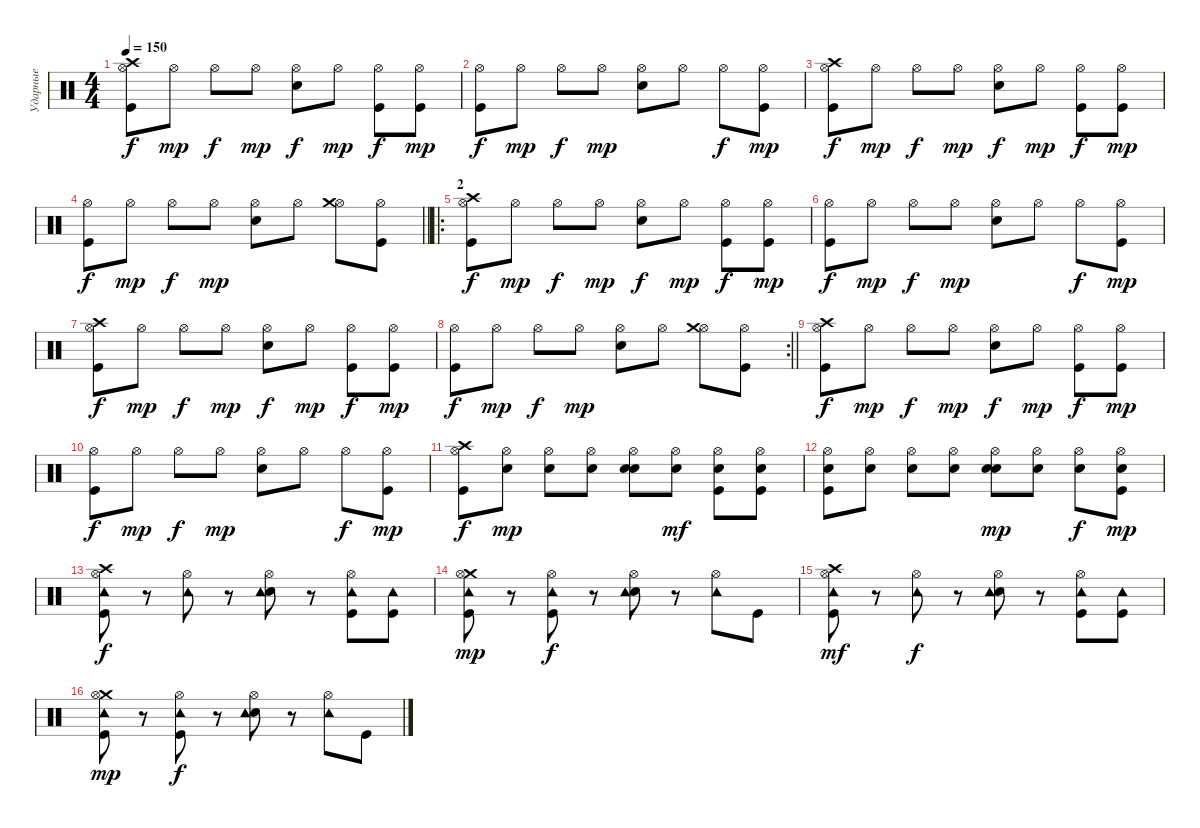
\track ("Ударные" "Ударные") {instrument percussion}
\staff {score}
\articulation defaults
\ts (4 4)
\tempo 150
\clef neutral
\ks c
("Crash high (hit)" "Hi-Hat (open)" "Kick (hit)").8{dy f} "Hi-Hat (open)".8{dy mp} "Hi-Hat (open)".8{dy f} "Hi-Hat (open)".8{dy mp} ("Snare (hit) 2" "Hi-Hat (open)").8{dy f} "Hi-Hat (open)".8{dy mp} ("Hi-Hat (open)" "Kick (hit)").8{dy f} ("Hi-Hat (open)" "Kick (hit)").8{dy mp} |
("Hi-Hat (open)" "Kick (hit)").8{dy f} "Hi-Hat (open)".8{dy mp} "Hi-Hat (open)".8{dy f} "Hi-Hat (open)".8{dy mp} ("Snare (hit) 2" "Hi-Hat (open)").8 "Hi-Hat (open)".8 "Hi-Hat (open)".8{dy f} ("Hi-Hat (open)" "Kick (hit)").8{dy mp} |
("Crash high (hit)" "Hi-Hat (open)" "Kick (hit)").8{dy f} "Hi-Hat (open)".8{dy mp} "Hi-Hat (open)".8{dy f} "Hi-Hat (open)".8{dy mp} ("Snare (hit) 2" "Hi-Hat (open)").8{dy f} "Hi-Hat (open)".8{dy mp} ("Hi-Hat (open)" "Kick (hit)").8{dy f} ("Hi-Hat (open)" "Kick (hit)").8{dy mp} |
\barLineRight lightlight
("Hi-Hat (open)" "Kick (hit)").8{dy f} "Hi-Hat (open)".8{dy mp} "Hi-Hat (open)".8{dy f} "Hi-Hat (open)".8{dy mp} ("Snare (hit) 2" "Hi-Hat (open)").8 "Hi-Hat (open)".8 ("Hi-Hat (open)" "Crash medium (hit)").8 ("Hi-Hat (open)" "Kick (hit)").8 |
\ro
\section ("" "2")
("Crash high (hit)" "Hi-Hat (open)" "Kick (hit)").8{dy f} "Hi-Hat (open)".8{dy mp} "Hi-Hat (open)".8{dy f} "Hi-Hat (open)".8{dy mp} ("Snare (hit) 2" "Hi-Hat (open)").8{dy f} "Hi-Hat (open)".8{dy mp} ("Hi-Hat (open)" "Kick (hit)").8{dy f} ("Hi-Hat (open)" "Kick (hit)").8{dy mp} |
("Hi-Hat (open)" "Kick (hit)").8{dy f} "Hi-Hat (open)".8{dy mp} "Hi-Hat (open)".8{dy f} "Hi-Hat (open)".8{dy mp} ("Snare (hit) 2" "Hi-Hat (open)").8 "Hi-Hat (open)".8 "Hi-Hat (open)".8{dy f} ("Hi-Hat (open)" "Kick (hit)").8{dy mp} |
("Crash high (hit)" "Hi-Hat (open)" "Kick (hit)").8{dy f} "Hi-Hat (open)".8{dy mp} "Hi-Hat (open)".8{dy f} "Hi-Hat (open)".8{dy mp} ("Snare (hit) 2" "Hi-Hat (open)").8{dy f} "Hi-Hat (open)".8{dy mp} ("Hi-Hat (open)" "Kick (hit)").8{dy f} ("Hi-Hat (open)" "Kick (hit)").8{dy mp} |
\rc 2
\barLineRight lightlight
("Hi-Hat (open)" "Kick (hit)").8{dy f} "Hi-Hat (open)".8{dy mp} "Hi-Hat (open)".8{dy f} "Hi-Hat (open)".8{dy mp} ("Snare (hit) 2" "Hi-Hat (open)").8 "Hi-Hat (open)".8 ("Hi-Hat (open)" "Crash medium (hit)").8 ("Hi-Hat (open)" "Kick (hit)").8 |
\section ("" "")
("Crash high (hit)" "Hi-Hat (open)" "Kick (hit)").8{dy f} "Hi-Hat (open)".8{dy mp} "Hi-Hat (open)".8{dy f} "Hi-Hat (open)".8{dy mp} ("Snare (hit) 2" "Hi-Hat (open)").8{dy f} "Hi-Hat (open)".8{dy mp} ("Hi-Hat (open)" "Kick (hit)").8{dy f} ("Hi-Hat (open)" "Kick (hit)").8{dy mp} |
("Hi-Hat (open)" "Kick (hit)").8{dy f} "Hi-Hat (open)".8{dy mp} "Hi-Hat (open)".8{dy f} "Hi-Hat (open)".8{dy mp} ("Snare (hit) 2" "Hi-Hat (open)").8 "Hi-Hat (open)".8 "Hi-Hat (open)".8{dy f} ("Hi-Hat (open)" "Kick (hit)").8{dy mp} |
("Crash high (hit)" "Hi-Hat (open)" "Kick (hit)").8{dy f} ("Hi-Hat (open)" "Snare (hit) 2").8{dy mp} ("Hi-Hat (open)" "Snare (hit) 2").8 ("Hi-Hat (open)" "Snare (hit) 2").8 ("Snare (hit) 2" "Hi-Hat (open)" "Snare (hit) 2").8 ("Hi-Hat (open)" "Snare (hit) 2").8{dy mf} ("Hi-Hat (open)" "Kick (hit)" "Snare (hit) 2").8 ("Hi-Hat (open)" "Kick (hit)" "Snare (hit) 2").8 |
("Hi-Hat (open)" "Kick (hit)" "Snare (hit) 2").8 ("Hi-Hat (open)" "Snare (hit) 2").8 ("Hi-Hat (open)" "Snare (hit)").8 ("Hi-Hat (open)" "Snare (hit) 2").8 ("Snare (hit) 2" "Hi-Hat (open)" "Snare (hit) 2").8{dy mp} ("Hi-Hat (open)" "Snare (hit) 2").8 ("Hi-Hat (open)" "Snare (hit) 2").8{dy f} ("Hi-Hat (open)" "Kick (hit)" "Snare (hit) 2").8{dy mp} |
("Crash high (hit)" "Kick (hit)" "Hi-Hat (open)" "Tambourine (hit)").8{dy f} r.8 ("Hi-Hat (open)" "Tambourine (hit)").8 r.8 ("Electric Snare (hit)" "Hi-Hat (open)" "Tambourine (hit)").8 r.8 ("Kick (hit)" "Hi-Hat (open)" "Tambourine (hit)").8 ("Kick (hit)" "Tambourine (hit)").8 |
("Crash medium (hit)" "Kick (hit)" "Hi-Hat (open)" "Tambourine (hit)").8{dy mp} r.8 ("Kick (hit)" "Hi-Hat (open)" "Tambourine (hit)").8{dy f} r.8 ("Electric Snare (hit)" "Hi-Hat (open)" "Tambourine (hit)").8 r.8 ("Hi-Hat (open)" "Tambourine (hit)").8 "Kick (hit)".8 |
("Crash high (hit)" "Kick (hit)" "Hi-Hat (open)" "Tambourine (hit)").8{dy mf} r.8 ("Hi-Hat (open)" "Tambourine (hit)").8{dy f} r.8 ("Electric Snare (hit)" "Hi-Hat (open)" "Tambourine (hit)").8 r.8 ("Kick (hit)" "Hi-Hat (open)" "Tambourine (hit)").8 ("Kick (hit)" "Tambourine (hit)").8 |
("Crash medium (hit)" "Kick (hit)" "Hi-Hat (open)" "Tambourine (hit)").8{dy mp} r.8 ("Kick (hit)" "Hi-Hat (open)" "Tambourine (hit)").8{dy f} r.8 ("Electric Snare (hit)" "Hi-Hat (open)" "Tambourine (hit)").8 r.8 ("Hi-Hat (open)" "Tambourine (hit)").8 "Kick (hit)".8
